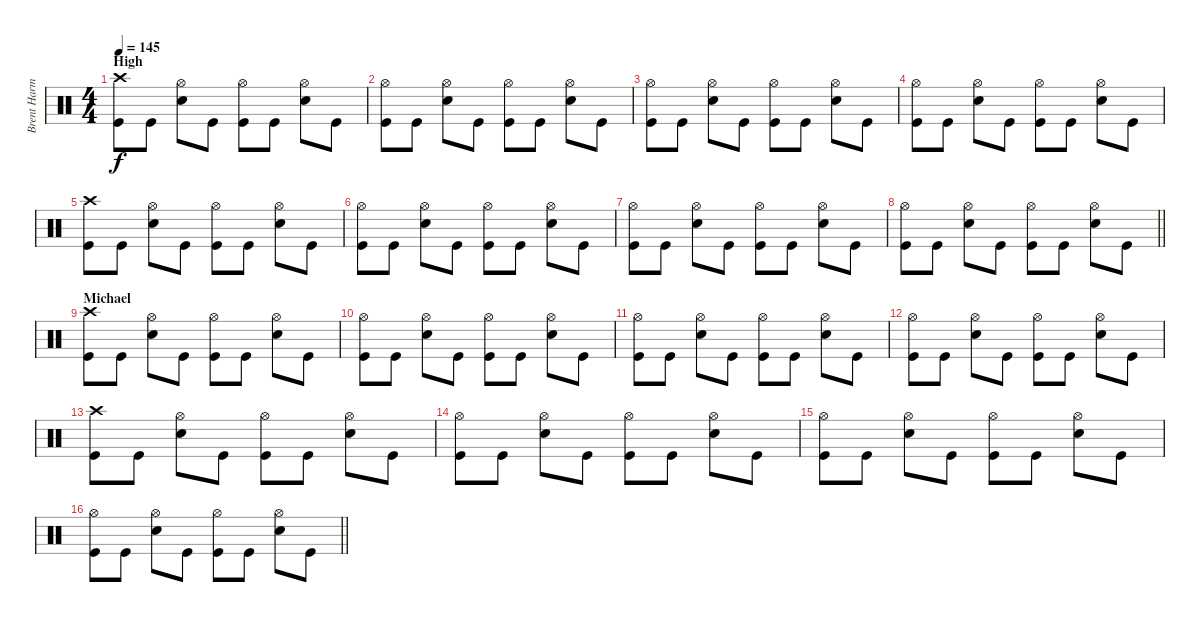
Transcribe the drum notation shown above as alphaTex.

\track ("Brent Harman" "Brent Harm") {instrument percussion}
\staff {score}
\articulation defaults
\ts (4 4)
\section ("" "High")
\tempo 145
\clef neutral
\ks c
("Crash high (hit)" "Kick (hit)").8{dy f} "Kick (hit)".8 ("Hi-Hat (open)" "Snare (hit) 2").8 "Kick (hit)".8 ("Hi-Hat (open)" "Kick (hit)").8 "Kick (hit)".8 ("Hi-Hat (open)" "Snare (hit) 2").8 "Kick (hit)".8 |
("Hi-Hat (open)" "Kick (hit)").8 "Kick (hit)".8 ("Hi-Hat (open)" "Snare (hit) 2").8 "Kick (hit)".8 ("Hi-Hat (open)" "Kick (hit)").8 "Kick (hit)".8 ("Hi-Hat (open)" "Snare (hit) 2").8 "Kick (hit)".8 |
("Hi-Hat (open)" "Kick (hit)").8 "Kick (hit)".8 ("Hi-Hat (open)" "Snare (hit) 2").8 "Kick (hit)".8 ("Hi-Hat (open)" "Kick (hit)").8 "Kick (hit)".8 ("Hi-Hat (open)" "Snare (hit) 2").8 "Kick (hit)".8 |
("Hi-Hat (open)" "Kick (hit)").8 "Kick (hit)".8 ("Hi-Hat (open)" "Snare (hit) 2").8 "Kick (hit)".8 ("Hi-Hat (open)" "Kick (hit)").8 "Kick (hit)".8 ("Hi-Hat (open)" "Snare (hit) 2").8 "Kick (hit)".8 |
("Crash high (hit)" "Kick (hit)").8 "Kick (hit)".8 ("Hi-Hat (open)" "Snare (hit) 2").8 "Kick (hit)".8 ("Hi-Hat (open)" "Kick (hit)").8 "Kick (hit)".8 ("Hi-Hat (open)" "Snare (hit) 2").8 "Kick (hit)".8 |
("Hi-Hat (open)" "Kick (hit)").8 "Kick (hit)".8 ("Hi-Hat (open)" "Snare (hit) 2").8 "Kick (hit)".8 ("Hi-Hat (open)" "Kick (hit)").8 "Kick (hit)".8 ("Hi-Hat (open)" "Snare (hit) 2").8 "Kick (hit)".8 |
("Hi-Hat (open)" "Kick (hit)").8 "Kick (hit)".8 ("Hi-Hat (open)" "Snare (hit) 2").8 "Kick (hit)".8 ("Hi-Hat (open)" "Kick (hit)").8 "Kick (hit)".8 ("Hi-Hat (open)" "Snare (hit) 2").8 "Kick (hit)".8 |
\barLineRight lightlight
("Hi-Hat (open)" "Kick (hit)").8 "Kick (hit)".8 ("Hi-Hat (open)" "Snare (hit) 2").8 "Kick (hit)".8 ("Hi-Hat (open)" "Kick (hit)").8 "Kick (hit)".8 ("Hi-Hat (open)" "Snare (hit) 2").8 "Kick (hit)".8 |
\section ("" "Michael")
("Crash high (hit)" "Kick (hit)").8 "Kick (hit)".8 ("Hi-Hat (open)" "Snare (hit) 2").8 "Kick (hit)".8 ("Hi-Hat (open)" "Kick (hit)").8 "Kick (hit)".8 ("Hi-Hat (open)" "Snare (hit) 2").8 "Kick (hit)".8 |
("Hi-Hat (open)" "Kick (hit)").8 "Kick (hit)".8 ("Hi-Hat (open)" "Snare (hit) 2").8 "Kick (hit)".8 ("Hi-Hat (open)" "Kick (hit)").8 "Kick (hit)".8 ("Hi-Hat (open)" "Snare (hit) 2").8 "Kick (hit)".8 |
("Hi-Hat (open)" "Kick (hit)").8 "Kick (hit)".8 ("Hi-Hat (open)" "Snare (hit) 2").8 "Kick (hit)".8 ("Hi-Hat (open)" "Kick (hit)").8 "Kick (hit)".8 ("Hi-Hat (open)" "Snare (hit) 2").8 "Kick (hit)".8 |
("Hi-Hat (open)" "Kick (hit)").8 "Kick (hit)".8 ("Hi-Hat (open)" "Snare (hit) 2").8 "Kick (hit)".8 ("Hi-Hat (open)" "Kick (hit)").8 "Kick (hit)".8 ("Hi-Hat (open)" "Snare (hit) 2").8 "Kick (hit)".8 |
("Crash high (hit)" "Kick (hit)").8 "Kick (hit)".8 ("Hi-Hat (open)" "Snare (hit) 2").8 "Kick (hit)".8 ("Hi-Hat (open)" "Kick (hit)").8 "Kick (hit)".8 ("Hi-Hat (open)" "Snare (hit) 2").8 "Kick (hit)".8 |
("Hi-Hat (open)" "Kick (hit)").8 "Kick (hit)".8 ("Hi-Hat (open)" "Snare (hit) 2").8 "Kick (hit)".8 ("Hi-Hat (open)" "Kick (hit)").8 "Kick (hit)".8 ("Hi-Hat (open)" "Snare (hit) 2").8 "Kick (hit)".8 |
("Hi-Hat (open)" "Kick (hit)").8 "Kick (hit)".8 ("Hi-Hat (open)" "Snare (hit) 2").8 "Kick (hit)".8 ("Hi-Hat (open)" "Kick (hit)").8 "Kick (hit)".8 ("Hi-Hat (open)" "Snare (hit) 2").8 "Kick (hit)".8 |
\barLineRight lightlight
("Hi-Hat (open)" "Kick (hit)").8 "Kick (hit)".8 ("Hi-Hat (open)" "Snare (hit) 2").8 "Kick (hit)".8 ("Hi-Hat (open)" "Kick (hit)").8 "Kick (hit)".8 ("Hi-Hat (open)" "Snare (hit) 2").8 "Kick (hit)".8
